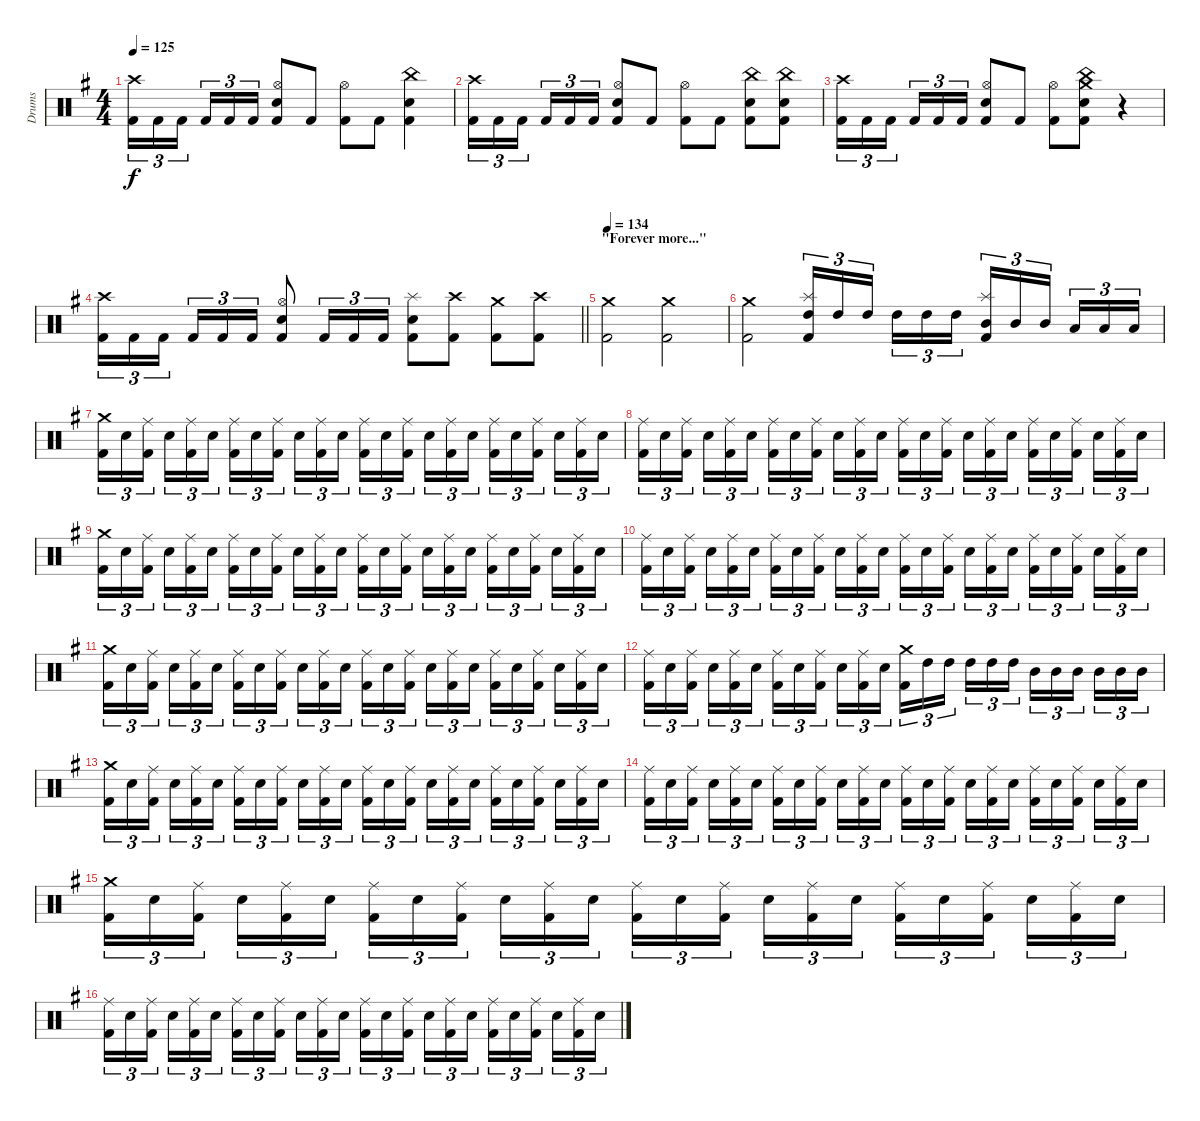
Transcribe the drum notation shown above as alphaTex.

\track ("Drums" "Drums") {instrument percussion}
\staff {score}
\articulation defaults
\ts (4 4)
\tempo 125
\clef neutral
\ks g
("Crash high (hit)" "Kick (hit) 2").16{tu (3 2) dy f} "Kick (hit) 2".16{tu (3 2)} "Kick (hit) 2".16{tu (3 2) beam splitsecondary} "Kick (hit) 2".16{tu (3 2)} "Kick (hit) 2".16{tu (3 2)} "Kick (hit) 2".16{tu (3 2)} ("Hi-Hat (open)" "Electric Snare (hit)" "Kick (hit) 2").8 "Kick (hit) 2".8 ("Hi-Hat (open)" "Kick (hit) 2").8 "Kick (hit) 2".8 ("China (hit)" "Electric Snare (hit)" "Kick (hit) 2").4 |
("Crash high (hit)" "Kick (hit) 2").16{tu (3 2)} "Kick (hit) 2".16{tu (3 2)} "Kick (hit) 2".16{tu (3 2) beam splitsecondary} "Kick (hit) 2".16{tu (3 2)} "Kick (hit) 2".16{tu (3 2)} "Kick (hit) 2".16{tu (3 2)} ("Hi-Hat (open)" "Electric Snare (hit)" "Kick (hit) 2").8 "Kick (hit) 2".8 ("Hi-Hat (open)" "Kick (hit) 2").8 "Kick (hit) 2".8 ("China (hit)" "Electric Snare (hit)" "Kick (hit) 2").8 ("China (hit)" "Electric Snare (hit)" "Kick (hit) 2").8 |
("Crash high (hit)" "Kick (hit) 2").16{tu (3 2)} "Kick (hit) 2".16{tu (3 2)} "Kick (hit) 2".16{tu (3 2) beam splitsecondary} "Kick (hit) 2".16{tu (3 2)} "Kick (hit) 2".16{tu (3 2)} "Kick (hit) 2".16{tu (3 2)} ("Hi-Hat (open)" "Electric Snare (hit)" "Kick (hit) 2").8 "Kick (hit) 2".8 ("Hi-Hat (open)" "Kick (hit) 2").8 ("China (hit)" "Crash medium (hit)" "Electric Snare (hit)" "Kick (hit) 2").8 r.4 |
\barLineRight lightlight
("Crash high (hit)" "Kick (hit) 2").16{tu (3 2)} "Kick (hit) 2".16{tu (3 2)} "Kick (hit) 2".16{tu (3 2) beam splitsecondary} "Kick (hit) 2".16{tu (3 2)} "Kick (hit) 2".16{tu (3 2)} "Kick (hit) 2".16{tu (3 2)} ("Hi-Hat (open)" "Electric Snare (hit)" "Kick (hit) 2").8 "Kick (hit) 2".16{tu (3 2)} "Kick (hit) 2".16{tu (3 2)} "Kick (hit) 2".16{tu (3 2)} ("Splash (hit)" "Electric Snare (hit)" "Kick (hit) 2").8 ("Crash high (hit)" "Kick (hit) 2").8 ("Crash medium (hit)" "Kick (hit) 2").8 ("Crash high (hit)" "Kick (hit) 2").8 |
\section ("" "\"Forever more...\"")
\tempo 134
("Crash medium (hit)" "Kick (hit) 2").2 ("Crash medium (hit)" "Kick (hit) 2").2 |
("Crash medium (hit)" "Kick (hit) 2").2 ("Splash (hit)" "High Tom (hit)" "Kick (hit) 2").16{tu (3 2)} "High Tom (hit)".16{tu (3 2)} "High Tom (hit)".16{tu (3 2) beam splitsecondary} "High Tom (hit)".16{tu (3 2)} "High Tom (hit)".16{tu (3 2)} "High Tom (hit)".16{tu (3 2)} ("Splash (hit)" "Mid Tom (hit)" "Kick (hit) 2").16{tu (3 2)} "Mid Tom (hit)".16{tu (3 2)} "Mid Tom (hit)".16{tu (3 2) beam splitsecondary} "Low Tom (hit)".16{tu (3 2)} "Low Tom (hit)".16{tu (3 2)} "Low Tom (hit)".16{tu (3 2)} |
("Crash medium (hit)" "Kick (hit) 2").16{tu (3 2)} "Electric Snare (hit)".16{tu (3 2)} ("Ride (middle)" "Kick (hit) 2").16{tu (3 2) beam splitsecondary} "Electric Snare (hit)".16{tu (3 2)} ("Ride (middle)" "Kick (hit) 2").16{tu (3 2)} "Electric Snare (hit)".16{tu (3 2)} ("Ride (middle)" "Kick (hit) 2").16{tu (3 2)} "Electric Snare (hit)".16{tu (3 2)} ("Ride (middle)" "Kick (hit) 2").16{tu (3 2) beam splitsecondary} "Electric Snare (hit)".16{tu (3 2)} ("Ride (middle)" "Kick (hit) 2").16{tu (3 2)} "Electric Snare (hit)".16{tu (3 2)} ("Ride (middle)" "Kick (hit) 2").16{tu (3 2)} "Electric Snare (hit)".16{tu (3 2)} ("Ride (middle)" "Kick (hit) 2").16{tu (3 2) beam splitsecondary} "Electric Snare (hit)".16{tu (3 2)} ("Ride (middle)" "Kick (hit) 2").16{tu (3 2)} "Electric Snare (hit)".16{tu (3 2)} ("Ride (middle)" "Kick (hit) 2").16{tu (3 2)} "Electric Snare (hit)".16{tu (3 2)} ("Ride (middle)" "Kick (hit) 2").16{tu (3 2) beam splitsecondary} "Electric Snare (hit)".16{tu (3 2)} ("Ride (middle)" "Kick (hit) 2").16{tu (3 2)} "Electric Snare (hit)".16{tu (3 2)} |
("Ride (middle)" "Kick (hit) 2").16{tu (3 2)} "Electric Snare (hit)".16{tu (3 2)} ("Ride (middle)" "Kick (hit) 2").16{tu (3 2) beam splitsecondary} "Electric Snare (hit)".16{tu (3 2)} ("Ride (middle)" "Kick (hit) 2").16{tu (3 2)} "Electric Snare (hit)".16{tu (3 2)} ("Ride (middle)" "Kick (hit) 2").16{tu (3 2)} "Electric Snare (hit)".16{tu (3 2)} ("Ride (middle)" "Kick (hit) 2").16{tu (3 2) beam splitsecondary} "Electric Snare (hit)".16{tu (3 2)} ("Ride (middle)" "Kick (hit) 2").16{tu (3 2)} "Electric Snare (hit)".16{tu (3 2)} ("Ride (middle)" "Kick (hit) 2").16{tu (3 2)} "Electric Snare (hit)".16{tu (3 2)} ("Ride (middle)" "Kick (hit) 2").16{tu (3 2) beam splitsecondary} "Electric Snare (hit)".16{tu (3 2)} ("Ride (middle)" "Kick (hit) 2").16{tu (3 2)} "Electric Snare (hit)".16{tu (3 2)} ("Ride (middle)" "Kick (hit) 2").16{tu (3 2)} "Electric Snare (hit)".16{tu (3 2)} ("Ride (middle)" "Kick (hit) 2").16{tu (3 2) beam splitsecondary} "Electric Snare (hit)".16{tu (3 2)} ("Ride (middle)" "Kick (hit) 2").16{tu (3 2)} "Electric Snare (hit)".16{tu (3 2)} |
("Crash medium (hit)" "Kick (hit) 2").16{tu (3 2)} "Electric Snare (hit)".16{tu (3 2)} ("Ride (middle)" "Kick (hit) 2").16{tu (3 2) beam splitsecondary} "Electric Snare (hit)".16{tu (3 2)} ("Ride (middle)" "Kick (hit) 2").16{tu (3 2)} "Electric Snare (hit)".16{tu (3 2)} ("Ride (middle)" "Kick (hit) 2").16{tu (3 2)} "Electric Snare (hit)".16{tu (3 2)} ("Ride (middle)" "Kick (hit) 2").16{tu (3 2) beam splitsecondary} "Electric Snare (hit)".16{tu (3 2)} ("Ride (middle)" "Kick (hit) 2").16{tu (3 2)} "Electric Snare (hit)".16{tu (3 2)} ("Ride (middle)" "Kick (hit) 2").16{tu (3 2)} "Electric Snare (hit)".16{tu (3 2)} ("Ride (middle)" "Kick (hit) 2").16{tu (3 2) beam splitsecondary} "Electric Snare (hit)".16{tu (3 2)} ("Ride (middle)" "Kick (hit) 2").16{tu (3 2)} "Electric Snare (hit)".16{tu (3 2)} ("Ride (middle)" "Kick (hit) 2").16{tu (3 2)} "Electric Snare (hit)".16{tu (3 2)} ("Ride (middle)" "Kick (hit) 2").16{tu (3 2) beam splitsecondary} "Electric Snare (hit)".16{tu (3 2)} ("Ride (middle)" "Kick (hit) 2").16{tu (3 2)} "Electric Snare (hit)".16{tu (3 2)} |
("Ride (middle)" "Kick (hit) 2").16{tu (3 2)} "Electric Snare (hit)".16{tu (3 2)} ("Ride (middle)" "Kick (hit) 2").16{tu (3 2) beam splitsecondary} "Electric Snare (hit)".16{tu (3 2)} ("Ride (middle)" "Kick (hit) 2").16{tu (3 2)} "Electric Snare (hit)".16{tu (3 2)} ("Ride (middle)" "Kick (hit) 2").16{tu (3 2)} "Electric Snare (hit)".16{tu (3 2)} ("Ride (middle)" "Kick (hit) 2").16{tu (3 2) beam splitsecondary} "Electric Snare (hit)".16{tu (3 2)} ("Ride (middle)" "Kick (hit) 2").16{tu (3 2)} "Electric Snare (hit)".16{tu (3 2)} ("Ride (middle)" "Kick (hit) 2").16{tu (3 2)} "Electric Snare (hit)".16{tu (3 2)} ("Ride (middle)" "Kick (hit) 2").16{tu (3 2) beam splitsecondary} "Electric Snare (hit)".16{tu (3 2)} ("Ride (middle)" "Kick (hit) 2").16{tu (3 2)} "Electric Snare (hit)".16{tu (3 2)} ("Ride (middle)" "Kick (hit) 2").16{tu (3 2)} "Electric Snare (hit)".16{tu (3 2)} ("Ride (middle)" "Kick (hit) 2").16{tu (3 2) beam splitsecondary} "Electric Snare (hit)".16{tu (3 2)} ("Ride (middle)" "Kick (hit) 2").16{tu (3 2)} "Electric Snare (hit)".16{tu (3 2)} |
("Crash medium (hit)" "Kick (hit) 2").16{tu (3 2)} "Electric Snare (hit)".16{tu (3 2)} ("Ride (middle)" "Kick (hit) 2").16{tu (3 2) beam splitsecondary} "Electric Snare (hit)".16{tu (3 2)} ("Ride (middle)" "Kick (hit) 2").16{tu (3 2)} "Electric Snare (hit)".16{tu (3 2)} ("Ride (middle)" "Kick (hit) 2").16{tu (3 2)} "Electric Snare (hit)".16{tu (3 2)} ("Ride (middle)" "Kick (hit) 2").16{tu (3 2) beam splitsecondary} "Electric Snare (hit)".16{tu (3 2)} ("Ride (middle)" "Kick (hit) 2").16{tu (3 2)} "Electric Snare (hit)".16{tu (3 2)} ("Ride (middle)" "Kick (hit) 2").16{tu (3 2)} "Electric Snare (hit)".16{tu (3 2)} ("Ride (middle)" "Kick (hit) 2").16{tu (3 2) beam splitsecondary} "Electric Snare (hit)".16{tu (3 2)} ("Ride (middle)" "Kick (hit) 2").16{tu (3 2)} "Electric Snare (hit)".16{tu (3 2)} ("Ride (middle)" "Kick (hit) 2").16{tu (3 2)} "Electric Snare (hit)".16{tu (3 2)} ("Ride (middle)" "Kick (hit) 2").16{tu (3 2) beam splitsecondary} "Electric Snare (hit)".16{tu (3 2)} ("Ride (middle)" "Kick (hit) 2").16{tu (3 2)} "Electric Snare (hit)".16{tu (3 2)} |
("Ride (middle)" "Kick (hit) 2").16{tu (3 2)} "Electric Snare (hit)".16{tu (3 2)} ("Ride (middle)" "Kick (hit) 2").16{tu (3 2) beam splitsecondary} "Electric Snare (hit)".16{tu (3 2)} ("Ride (middle)" "Kick (hit) 2").16{tu (3 2)} "Electric Snare (hit)".16{tu (3 2)} ("Ride (middle)" "Kick (hit) 2").16{tu (3 2)} "Electric Snare (hit)".16{tu (3 2)} ("Ride (middle)" "Kick (hit) 2").16{tu (3 2) beam splitsecondary} "Electric Snare (hit)".16{tu (3 2)} ("Ride (middle)" "Kick (hit) 2").16{tu (3 2)} "Electric Snare (hit)".16{tu (3 2)} ("Crash medium (hit)" "Kick (hit) 2").16{tu (3 2)} "High Tom (hit)".16{tu (3 2)} "High Tom (hit)".16{tu (3 2) beam splitsecondary} "High Tom (hit)".16{tu (3 2)} "High Tom (hit)".16{tu (3 2)} "High Tom (hit)".16{tu (3 2)} "Mid Tom (hit)".16{tu (3 2)} "Mid Tom (hit)".16{tu (3 2)} "Mid Tom (hit)".16{tu (3 2) beam splitsecondary} "Mid Tom (hit)".16{tu (3 2)} "Mid Tom (hit)".16{tu (3 2)} "Mid Tom (hit)".16{tu (3 2)} |
("Crash medium (hit)" "Kick (hit) 2").16{tu (3 2)} "Electric Snare (hit)".16{tu (3 2)} ("Ride (middle)" "Kick (hit) 2").16{tu (3 2) beam splitsecondary} "Electric Snare (hit)".16{tu (3 2)} ("Ride (middle)" "Kick (hit) 2").16{tu (3 2)} "Electric Snare (hit)".16{tu (3 2)} ("Ride (middle)" "Kick (hit) 2").16{tu (3 2)} "Electric Snare (hit)".16{tu (3 2)} ("Ride (middle)" "Kick (hit) 2").16{tu (3 2) beam splitsecondary} "Electric Snare (hit)".16{tu (3 2)} ("Ride (middle)" "Kick (hit) 2").16{tu (3 2)} "Electric Snare (hit)".16{tu (3 2)} ("Ride (middle)" "Kick (hit) 2").16{tu (3 2)} "Electric Snare (hit)".16{tu (3 2)} ("Ride (middle)" "Kick (hit) 2").16{tu (3 2) beam splitsecondary} "Electric Snare (hit)".16{tu (3 2)} ("Ride (middle)" "Kick (hit) 2").16{tu (3 2)} "Electric Snare (hit)".16{tu (3 2)} ("Ride (middle)" "Kick (hit) 2").16{tu (3 2)} "Electric Snare (hit)".16{tu (3 2)} ("Ride (middle)" "Kick (hit) 2").16{tu (3 2) beam splitsecondary} "Electric Snare (hit)".16{tu (3 2)} ("Ride (middle)" "Kick (hit) 2").16{tu (3 2)} "Electric Snare (hit)".16{tu (3 2)} |
("Ride (middle)" "Kick (hit) 2").16{tu (3 2)} "Electric Snare (hit)".16{tu (3 2)} ("Ride (middle)" "Kick (hit) 2").16{tu (3 2) beam splitsecondary} "Electric Snare (hit)".16{tu (3 2)} ("Ride (middle)" "Kick (hit) 2").16{tu (3 2)} "Electric Snare (hit)".16{tu (3 2)} ("Ride (middle)" "Kick (hit) 2").16{tu (3 2)} "Electric Snare (hit)".16{tu (3 2)} ("Ride (middle)" "Kick (hit) 2").16{tu (3 2) beam splitsecondary} "Electric Snare (hit)".16{tu (3 2)} ("Ride (middle)" "Kick (hit) 2").16{tu (3 2)} "Electric Snare (hit)".16{tu (3 2)} ("Ride (middle)" "Kick (hit) 2").16{tu (3 2)} "Electric Snare (hit)".16{tu (3 2)} ("Ride (middle)" "Kick (hit) 2").16{tu (3 2) beam splitsecondary} "Electric Snare (hit)".16{tu (3 2)} ("Ride (middle)" "Kick (hit) 2").16{tu (3 2)} "Electric Snare (hit)".16{tu (3 2)} ("Ride (middle)" "Kick (hit) 2").16{tu (3 2)} "Electric Snare (hit)".16{tu (3 2)} ("Ride (middle)" "Kick (hit) 2").16{tu (3 2) beam splitsecondary} "Electric Snare (hit)".16{tu (3 2)} ("Ride (middle)" "Kick (hit) 2").16{tu (3 2)} "Electric Snare (hit)".16{tu (3 2)} |
("Crash medium (hit)" "Kick (hit) 2").16{tu (3 2)} "Electric Snare (hit)".16{tu (3 2)} ("Ride (middle)" "Kick (hit) 2").16{tu (3 2) beam splitsecondary} "Electric Snare (hit)".16{tu (3 2)} ("Ride (middle)" "Kick (hit) 2").16{tu (3 2)} "Electric Snare (hit)".16{tu (3 2)} ("Ride (middle)" "Kick (hit) 2").16{tu (3 2)} "Electric Snare (hit)".16{tu (3 2)} ("Ride (middle)" "Kick (hit) 2").16{tu (3 2) beam splitsecondary} "Electric Snare (hit)".16{tu (3 2)} ("Ride (middle)" "Kick (hit) 2").16{tu (3 2)} "Electric Snare (hit)".16{tu (3 2)} ("Ride (middle)" "Kick (hit) 2").16{tu (3 2)} "Electric Snare (hit)".16{tu (3 2)} ("Ride (middle)" "Kick (hit) 2").16{tu (3 2) beam splitsecondary} "Electric Snare (hit)".16{tu (3 2)} ("Ride (middle)" "Kick (hit) 2").16{tu (3 2)} "Electric Snare (hit)".16{tu (3 2)} ("Ride (middle)" "Kick (hit) 2").16{tu (3 2)} "Electric Snare (hit)".16{tu (3 2)} ("Ride (middle)" "Kick (hit) 2").16{tu (3 2) beam splitsecondary} "Electric Snare (hit)".16{tu (3 2)} ("Ride (middle)" "Kick (hit) 2").16{tu (3 2)} "Electric Snare (hit)".16{tu (3 2)} |
("Ride (middle)" "Kick (hit) 2").16{tu (3 2)} "Electric Snare (hit)".16{tu (3 2)} ("Ride (middle)" "Kick (hit) 2").16{tu (3 2) beam splitsecondary} "Electric Snare (hit)".16{tu (3 2)} ("Ride (middle)" "Kick (hit) 2").16{tu (3 2)} "Electric Snare (hit)".16{tu (3 2)} ("Ride (middle)" "Kick (hit) 2").16{tu (3 2)} "Electric Snare (hit)".16{tu (3 2)} ("Ride (middle)" "Kick (hit) 2").16{tu (3 2) beam splitsecondary} "Electric Snare (hit)".16{tu (3 2)} ("Ride (middle)" "Kick (hit) 2").16{tu (3 2)} "Electric Snare (hit)".16{tu (3 2)} ("Ride (middle)" "Kick (hit) 2").16{tu (3 2)} "Electric Snare (hit)".16{tu (3 2)} ("Ride (middle)" "Kick (hit) 2").16{tu (3 2) beam splitsecondary} "Electric Snare (hit)".16{tu (3 2)} ("Ride (middle)" "Kick (hit) 2").16{tu (3 2)} "Electric Snare (hit)".16{tu (3 2)} ("Ride (middle)" "Kick (hit) 2").16{tu (3 2)} "Electric Snare (hit)".16{tu (3 2)} ("Ride (middle)" "Kick (hit) 2").16{tu (3 2) beam splitsecondary} "Electric Snare (hit)".16{tu (3 2)} ("Ride (middle)" "Kick (hit) 2").16{tu (3 2)} "Electric Snare (hit)".16{tu (3 2)}
